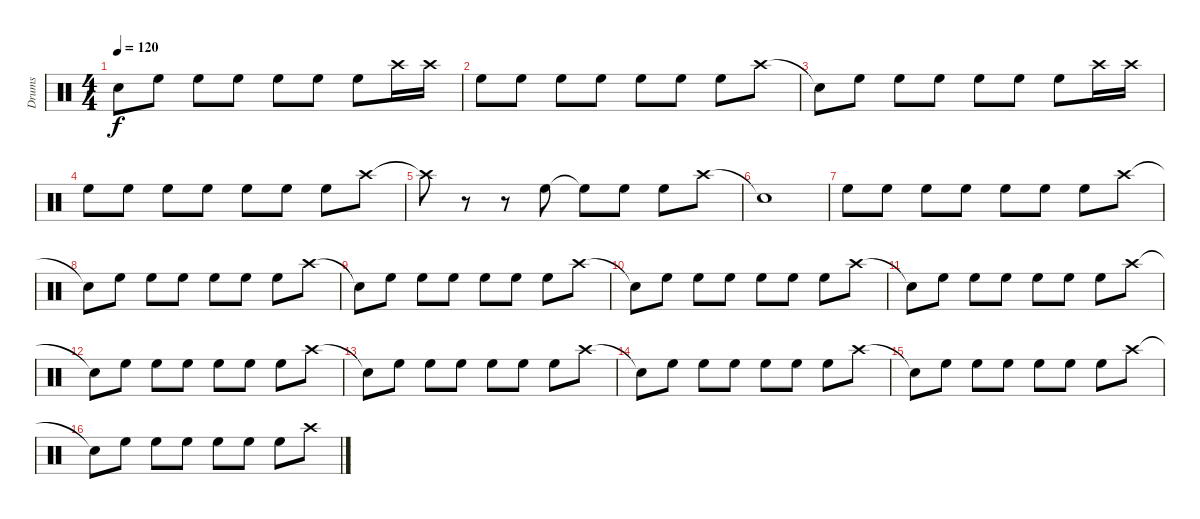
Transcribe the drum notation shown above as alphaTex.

\track ("Drums" "Drums") {instrument percussion}
\staff {score}
\articulation defaults
\ts (4 4)
\tempo 120
\clef neutral
\ks c "Snare (hit)"{t}.8{dy f} "High Floor Tom (hit)".8 "High Floor Tom (hit)".8 "High Floor Tom (hit)".8 "High Floor Tom (hit)".8 "High Floor Tom (hit)".8 "High Floor Tom (hit)".8 "Crash high (hit)".16 "Crash high (hit)".16
|
"High Floor Tom (hit)".8 "High Floor Tom (hit)".8 "High Floor Tom (hit)".8 "High Floor Tom (hit)".8 "High Floor Tom (hit)".8 "High Floor Tom (hit)".8 "High Floor Tom (hit)".8 "Crash high (hit)".8 |
"Snare (hit)"{t}.8 "High Floor Tom (hit)".8 "High Floor Tom (hit)".8 "High Floor Tom (hit)".8 "High Floor Tom (hit)".8 "High Floor Tom (hit)".8 "High Floor Tom (hit)".8 "Crash high (hit)".16 "Crash high (hit)".16 |
"High Floor Tom (hit)".8 "High Floor Tom (hit)".8 "High Floor Tom (hit)".8 "High Floor Tom (hit)".8 "High Floor Tom (hit)".8 "High Floor Tom (hit)".8 "High Floor Tom (hit)".8 "Crash high (hit)".8 |
"Crash high (hit)"{t}.8 r.8 r.8 "High Floor Tom (hit)".8 "High Floor Tom (hit)"{t}.8 "High Floor Tom (hit)".8 "High Floor Tom (hit)".8 "Crash high (hit)".8 |
"Snare (hit)"{t}.1 |
"High Floor Tom (hit)".8 "High Floor Tom (hit)".8 "High Floor Tom (hit)".8 "High Floor Tom (hit)".8 "High Floor Tom (hit)".8 "High Floor Tom (hit)".8 "High Floor Tom (hit)".8 "Crash high (hit)".8 |
"Snare (hit)"{t}.8 "High Floor Tom (hit)".8 "High Floor Tom (hit)".8 "High Floor Tom (hit)".8 "High Floor Tom (hit)".8 "High Floor Tom (hit)".8 "High Floor Tom (hit)".8 "Crash high (hit)".8 |
"Snare (hit)"{t}.8 "High Floor Tom (hit)".8 "High Floor Tom (hit)".8 "High Floor Tom (hit)".8 "High Floor Tom (hit)".8 "High Floor Tom (hit)".8 "High Floor Tom (hit)".8 "Crash high (hit)".8 |
"Snare (hit)"{t}.8 "High Floor Tom (hit)".8 "High Floor Tom (hit)".8 "High Floor Tom (hit)".8 "High Floor Tom (hit)".8 "High Floor Tom (hit)".8 "High Floor Tom (hit)".8 "Crash high (hit)".8 |
"Snare (hit)"{t}.8 "High Floor Tom (hit)".8 "High Floor Tom (hit)".8 "High Floor Tom (hit)".8 "High Floor Tom (hit)".8 "High Floor Tom (hit)".8 "High Floor Tom (hit)".8 "Crash high (hit)".8 |
"Snare (hit)"{t}.8 "High Floor Tom (hit)".8 "High Floor Tom (hit)".8 "High Floor Tom (hit)".8 "High Floor Tom (hit)".8 "High Floor Tom (hit)".8 "High Floor Tom (hit)".8 "Crash high (hit)".8 |
"Snare (hit)"{t}.8 "High Floor Tom (hit)".8 "High Floor Tom (hit)".8 "High Floor Tom (hit)".8 "High Floor Tom (hit)".8 "High Floor Tom (hit)".8 "High Floor Tom (hit)".8 "Crash high (hit)".8 |
"Snare (hit)"{t}.8 "High Floor Tom (hit)".8 "High Floor Tom (hit)".8 "High Floor Tom (hit)".8 "High Floor Tom (hit)".8 "High Floor Tom (hit)".8 "High Floor Tom (hit)".8 "Crash high (hit)".8 |
"Snare (hit)"{t}.8 "High Floor Tom (hit)".8 "High Floor Tom (hit)".8 "High Floor Tom (hit)".8 "High Floor Tom (hit)".8 "High Floor Tom (hit)".8 "High Floor Tom (hit)".8 "Crash high (hit)".8 |
"Snare (hit)"{t}.8 "High Floor Tom (hit)".8 "High Floor Tom (hit)".8 "High Floor Tom (hit)".8 "High Floor Tom (hit)".8 "High Floor Tom (hit)".8 "High Floor Tom (hit)".8 "Crash high (hit)".8
